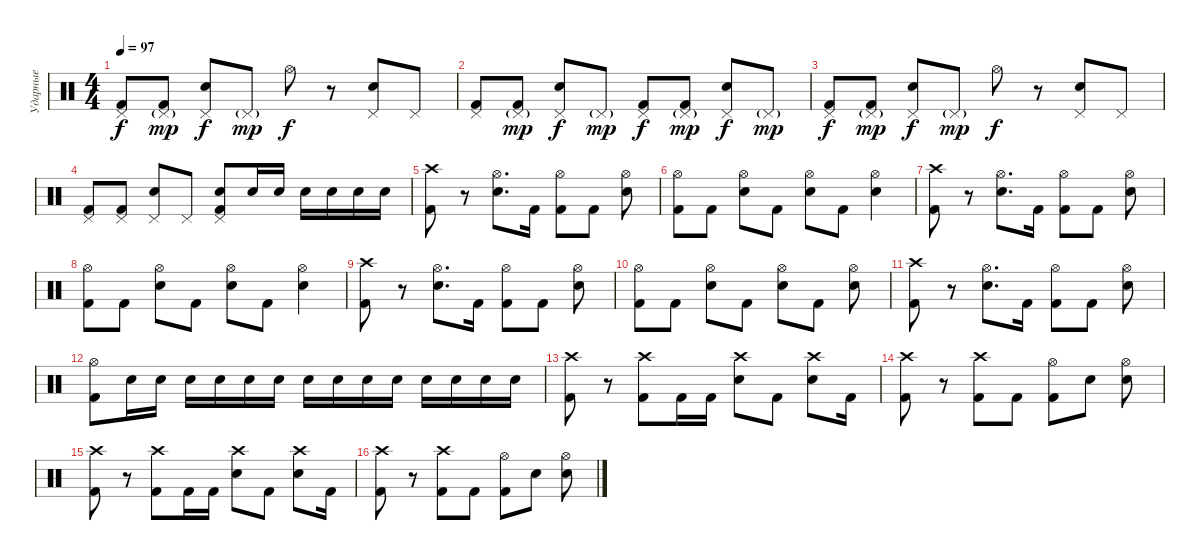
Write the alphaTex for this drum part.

\track ("Ударные" "Ударные") {instrument percussion}
\staff {score}
\articulation defaults
\ts (4 4)
\tempo 97
\clef neutral
\ks c
("Kick (hit) 2" "Pedal Hi-Hat (hit)").8{dy f} ("Kick (hit) 2" "Pedal Hi-Hat (hit)"{g}).8{dy mp} ("Electric Snare (hit)" "Pedal Hi-Hat (hit)").8{dy f} "Pedal Hi-Hat (hit)"{g}.8{dy mp} "Hi-Hat (open)".8{dy f} r.8 ("Electric Snare (hit)" "Pedal Hi-Hat (hit)").8 "Pedal Hi-Hat (hit)".8 |
("Kick (hit) 2" "Pedal Hi-Hat (hit)").8 ("Kick (hit) 2" "Pedal Hi-Hat (hit)"{g}).8{dy mp} ("Electric Snare (hit)" "Pedal Hi-Hat (hit)").8{dy f} "Pedal Hi-Hat (hit)"{g}.8{dy mp} ("Kick (hit) 2" "Pedal Hi-Hat (hit)").8{dy f} ("Kick (hit) 2" "Pedal Hi-Hat (hit)"{g}).8{dy mp} ("Electric Snare (hit)" "Pedal Hi-Hat (hit)").8{dy f} "Pedal Hi-Hat (hit)"{g}.8{dy mp} |
("Kick (hit) 2" "Pedal Hi-Hat (hit)").8{dy f} ("Kick (hit) 2" "Pedal Hi-Hat (hit)"{g}).8{dy mp} ("Electric Snare (hit)" "Pedal Hi-Hat (hit)").8{dy f} "Pedal Hi-Hat (hit)"{g}.8{dy mp} "Hi-Hat (open)".8{dy f} r.8 ("Electric Snare (hit)" "Pedal Hi-Hat (hit)").8 "Pedal Hi-Hat (hit)".8 |
("Kick (hit) 2" "Pedal Hi-Hat (hit)").8 ("Kick (hit) 2" "Pedal Hi-Hat (hit)").8 ("Electric Snare (hit)" "Pedal Hi-Hat (hit)").8 "Pedal Hi-Hat (hit)".8 ("Kick (hit) 2" "Electric Snare (hit)" "Pedal Hi-Hat (hit)").8 "Electric Snare (hit)".16 "Electric Snare (hit)".16 "Electric Snare (hit)".16 "Electric Snare (hit)".16 "Electric Snare (hit)".16 "Electric Snare (hit)".16 |
("Kick (hit) 2" "Crash high (hit)").8 r.8 ("Electric Snare (hit)" "Hi-Hat (open)").8{d} "Kick (hit) 2".16 ("Kick (hit) 2" "Hi-Hat (open)").8 "Kick (hit) 2".8 ("Electric Snare (hit)" "Hi-Hat (open)").8 |
("Kick (hit) 2" "Hi-Hat (open)").8 "Kick (hit) 2".8 ("Electric Snare (hit)" "Hi-Hat (open)").8 "Kick (hit) 2".8 ("Electric Snare (hit)" "Hi-Hat (open)").8 "Kick (hit) 2".8 ("Electric Snare (hit)" "Hi-Hat (open)").4 |
("Kick (hit) 2" "Crash high (hit)").8 r.8 ("Electric Snare (hit)" "Hi-Hat (open)").8{d} "Kick (hit) 2".16 ("Kick (hit) 2" "Hi-Hat (open)").8 "Kick (hit) 2".8 ("Electric Snare (hit)" "Hi-Hat (open)").8 |
("Kick (hit) 2" "Hi-Hat (open)").8 "Kick (hit) 2".8 ("Electric Snare (hit)" "Hi-Hat (open)").8 "Kick (hit) 2".8 ("Electric Snare (hit)" "Hi-Hat (open)").8 "Kick (hit) 2".8 ("Electric Snare (hit)" "Hi-Hat (open)").4 |
("Kick (hit) 2" "Crash high (hit)").8 r.8 ("Electric Snare (hit)" "Hi-Hat (open)").8{d} "Kick (hit) 2".16 ("Kick (hit) 2" "Hi-Hat (open)").8 "Kick (hit) 2".8 ("Electric Snare (hit)" "Hi-Hat (open)").8 |
("Kick (hit) 2" "Hi-Hat (open)").8 "Kick (hit) 2".8 ("Electric Snare (hit)" "Hi-Hat (open)").8 "Kick (hit) 2".8 ("Electric Snare (hit)" "Hi-Hat (open)").8 "Kick (hit) 2".8 ("Electric Snare (hit)" "Hi-Hat (open)").8 |
("Kick (hit) 2" "Crash high (hit)").8 r.8 ("Electric Snare (hit)" "Hi-Hat (open)").8{d} "Kick (hit) 2".16 ("Kick (hit) 2" "Hi-Hat (open)").8 "Kick (hit) 2".8 ("Electric Snare (hit)" "Hi-Hat (open)").8 |
("Kick (hit) 2" "Hi-Hat (open)").8 "Electric Snare (hit)".16 "Electric Snare (hit)".16 "Electric Snare (hit)".16 "Electric Snare (hit)".16 "Electric Snare (hit)".16 "Electric Snare (hit)".16 "Electric Snare (hit)".16 "Electric Snare (hit)".16 "Electric Snare (hit)".16 "Electric Snare (hit)".16 "Electric Snare (hit)".16 "Electric Snare (hit)".16 "Electric Snare (hit)".16 "Electric Snare (hit)".16 |
("Kick (hit) 2" "Crash high (hit)").8 r.8 ("Kick (hit) 2" "Crash high (hit)").8 "Kick (hit) 2".16 "Kick (hit) 2".16 ("Electric Snare (hit)" "Crash high (hit)").8 "Kick (hit) 2".8 ("Electric Snare (hit)" "Crash high (hit)").8 "Kick (hit) 2".16 |
("Kick (hit) 2" "Crash high (hit)").8 r.8 ("Kick (hit) 2" "Crash high (hit)").8 "Kick (hit) 2".8 ("Kick (hit) 2" "Hi-Hat (open)").8 "Electric Snare (hit)".8 ("Electric Snare (hit)" "Hi-Hat (open)").8 |
("Kick (hit) 2" "Crash high (hit)").8 r.8 ("Kick (hit) 2" "Crash high (hit)").8 "Kick (hit) 2".16 "Kick (hit) 2".16 ("Electric Snare (hit)" "Crash high (hit)").8 "Kick (hit) 2".8 ("Electric Snare (hit)" "Crash high (hit)").8 "Kick (hit) 2".16 |
("Kick (hit) 2" "Crash high (hit)").8 r.8 ("Kick (hit) 2" "Crash high (hit)").8 "Kick (hit) 2".8 ("Kick (hit) 2" "Hi-Hat (open)").8 "Electric Snare (hit)".8 ("Electric Snare (hit)" "Hi-Hat (open)").8
